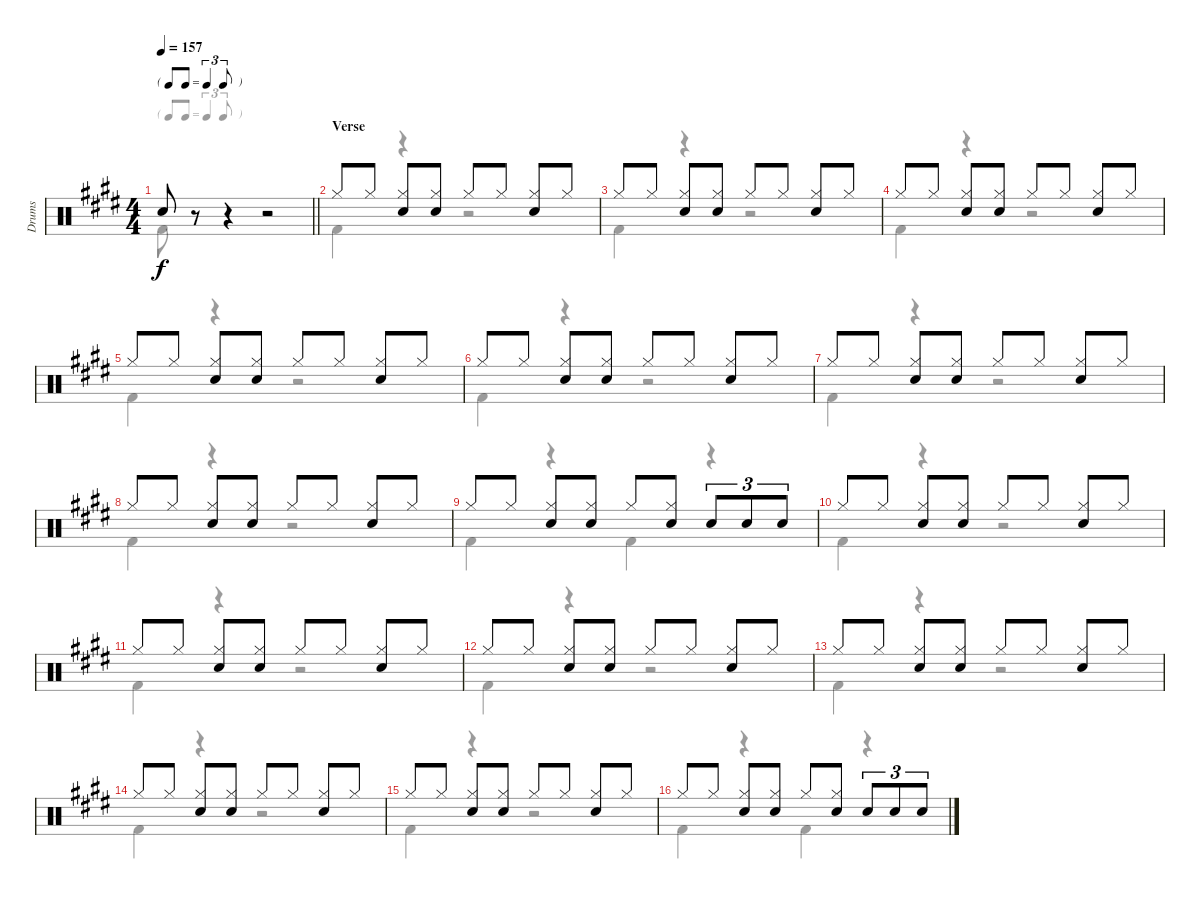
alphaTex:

\track ("Drums" "Drums") {instrument percussion}
\staff {score}
\articulation defaults
\voice
\ts (4 4)
\tf triplet8th
\tempo 157
\clef neutral
\barLineRight lightlight
\ks e "Snare (hit) 2".8{dy f}
r.8 r.4 r.2 |
\section ("" "Verse")
"Hi-Hat (closed)".8 "Hi-Hat (closed)".8 ("Hi-Hat (closed)" "Snare (hit) 2").8 ("Hi-Hat (closed)" "Snare (hit) 2").8 "Hi-Hat (closed)".8 "Hi-Hat (closed)".8 ("Hi-Hat (closed)" "Snare (hit) 2").8 "Hi-Hat (closed)".8 |
"Hi-Hat (closed)".8 "Hi-Hat (closed)".8 ("Hi-Hat (closed)" "Snare (hit) 2").8 ("Hi-Hat (closed)" "Snare (hit) 2").8 "Hi-Hat (closed)".8 "Hi-Hat (closed)".8 ("Hi-Hat (closed)" "Snare (hit) 2").8 "Hi-Hat (closed)".8 |
"Hi-Hat (closed)".8 "Hi-Hat (closed)".8 ("Hi-Hat (closed)" "Snare (hit) 2").8 ("Hi-Hat (closed)" "Snare (hit) 2").8 "Hi-Hat (closed)".8 "Hi-Hat (closed)".8 ("Hi-Hat (closed)" "Snare (hit) 2").8 "Hi-Hat (closed)".8 |
"Hi-Hat (closed)".8 "Hi-Hat (closed)".8 ("Hi-Hat (closed)" "Snare (hit) 2").8 ("Hi-Hat (closed)" "Snare (hit) 2").8 "Hi-Hat (closed)".8 "Hi-Hat (closed)".8 ("Hi-Hat (closed)" "Snare (hit) 2").8 "Hi-Hat (closed)".8 |
"Hi-Hat (closed)".8 "Hi-Hat (closed)".8 ("Hi-Hat (closed)" "Snare (hit) 2").8 ("Hi-Hat (closed)" "Snare (hit) 2").8 "Hi-Hat (closed)".8 "Hi-Hat (closed)".8 ("Hi-Hat (closed)" "Snare (hit) 2").8 "Hi-Hat (closed)".8 |
"Hi-Hat (closed)".8 "Hi-Hat (closed)".8 ("Hi-Hat (closed)" "Snare (hit) 2").8 ("Hi-Hat (closed)" "Snare (hit) 2").8 "Hi-Hat (closed)".8 "Hi-Hat (closed)".8 ("Hi-Hat (closed)" "Snare (hit) 2").8 "Hi-Hat (closed)".8 |
"Hi-Hat (closed)".8 "Hi-Hat (closed)".8 ("Hi-Hat (closed)" "Snare (hit) 2").8 ("Hi-Hat (closed)" "Snare (hit) 2").8 "Hi-Hat (closed)".8 "Hi-Hat (closed)".8 ("Hi-Hat (closed)" "Snare (hit) 2").8 "Hi-Hat (closed)".8 |
"Hi-Hat (closed)".8 "Hi-Hat (closed)".8 ("Hi-Hat (closed)" "Snare (hit) 2").8 ("Hi-Hat (closed)" "Snare (hit) 2").8 "Hi-Hat (closed)".8 ("Hi-Hat (closed)" "Snare (hit) 2").8 "Snare (hit) 2".8{tu (3 2)} "Snare (hit) 2".8{tu (3 2)} "Snare (hit) 2".8{tu (3 2)} |
"Hi-Hat (closed)".8 "Hi-Hat (closed)".8 ("Hi-Hat (closed)" "Snare (hit) 2").8 ("Hi-Hat (closed)" "Snare (hit) 2").8 "Hi-Hat (closed)".8 "Hi-Hat (closed)".8 ("Hi-Hat (closed)" "Snare (hit) 2").8 "Hi-Hat (closed)".8 |
"Hi-Hat (closed)".8 "Hi-Hat (closed)".8 ("Hi-Hat (closed)" "Snare (hit) 2").8 ("Hi-Hat (closed)" "Snare (hit) 2").8 "Hi-Hat (closed)".8 "Hi-Hat (closed)".8 ("Hi-Hat (closed)" "Snare (hit) 2").8 "Hi-Hat (closed)".8 |
"Hi-Hat (closed)".8 "Hi-Hat (closed)".8 ("Hi-Hat (closed)" "Snare (hit) 2").8 ("Hi-Hat (closed)" "Snare (hit) 2").8 "Hi-Hat (closed)".8 "Hi-Hat (closed)".8 ("Hi-Hat (closed)" "Snare (hit) 2").8 "Hi-Hat (closed)".8 |
"Hi-Hat (closed)".8 "Hi-Hat (closed)".8 ("Hi-Hat (closed)" "Snare (hit) 2").8 ("Hi-Hat (closed)" "Snare (hit) 2").8 "Hi-Hat (closed)".8 "Hi-Hat (closed)".8 ("Hi-Hat (closed)" "Snare (hit) 2").8 "Hi-Hat (closed)".8 |
"Hi-Hat (closed)".8 "Hi-Hat (closed)".8 ("Hi-Hat (closed)" "Snare (hit) 2").8 ("Hi-Hat (closed)" "Snare (hit) 2").8 "Hi-Hat (closed)".8 "Hi-Hat (closed)".8 ("Hi-Hat (closed)" "Snare (hit) 2").8 "Hi-Hat (closed)".8 |
"Hi-Hat (closed)".8 "Hi-Hat (closed)".8 ("Hi-Hat (closed)" "Snare (hit) 2").8 ("Hi-Hat (closed)" "Snare (hit) 2").8 "Hi-Hat (closed)".8 "Hi-Hat (closed)".8 ("Hi-Hat (closed)" "Snare (hit) 2").8 "Hi-Hat (closed)".8 |
"Hi-Hat (closed)".8 "Hi-Hat (closed)".8 ("Hi-Hat (closed)" "Snare (hit) 2").8 ("Hi-Hat (closed)" "Snare (hit) 2").8 "Hi-Hat (closed)".8 ("Hi-Hat (closed)" "Snare (hit) 2").8 "Snare (hit) 2".8{tu (3 2)} "Snare (hit) 2".8{tu (3 2)} "Snare (hit) 2".8{tu (3 2)}
\voice
\clef neutral
\ottava regular
\simile none
\barLineRight lightlight
\ks e "Kick (hit) 2".8{dy f}
r.8 r.4 r.2 |
"Kick (hit) 2".4 r.4 r.2 |
"Kick (hit) 2".4 r.4 r.2 |
"Kick (hit) 2".4 r.4 r.2 |
"Kick (hit) 2".4 r.4 r.2 |
"Kick (hit) 2".4 r.4 r.2 |
"Kick (hit) 2".4 r.4 r.2 |
"Kick (hit) 2".4 r.4 r.2 |
"Kick (hit) 2".4 r.4 "Kick (hit) 2".4 r.4 |
"Kick (hit) 2".4 r.4 r.2 |
"Kick (hit) 2".4 r.4 r.2 |
"Kick (hit) 2".4 r.4 r.2 |
"Kick (hit) 2".4 r.4 r.2 |
"Kick (hit) 2".4 r.4 r.2 |
"Kick (hit) 2".4 r.4 r.2 |
"Kick (hit) 2".4 r.4 "Kick (hit) 2".4 r.4
